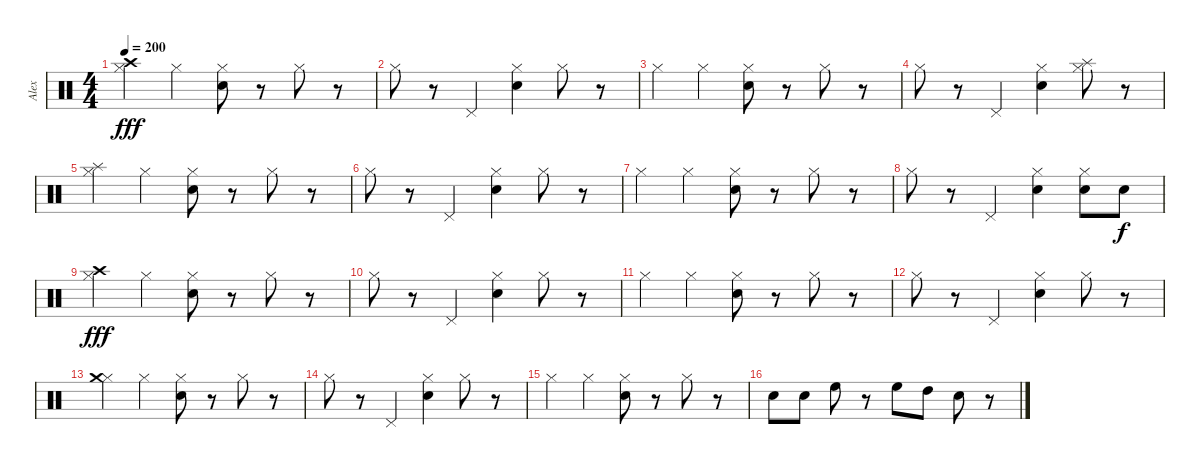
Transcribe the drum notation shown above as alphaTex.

\track ("Alex" "Alex") {instrument percussion}
\staff {score}
\articulation defaults
\ts (4 4)
\tempo 200
\clef neutral
\ks c
("Crash high (hit)" "Hi-Hat (closed)").4{dy fff} "Hi-Hat (closed)".4 ("Electric Snare (hit)" "Hi-Hat (closed)").8 r.8 "Hi-Hat (closed)".8 r.8 |
"Hi-Hat (closed)".8 r.8 "Pedal Hi-Hat (hit)".4 ("Electric Snare (hit)" "Hi-Hat (closed)").4 "Hi-Hat (closed)".8 r.8 |
"Hi-Hat (closed)".4 "Hi-Hat (closed)".4 ("Electric Snare (hit)" "Hi-Hat (closed)").8 r.8 "Hi-Hat (closed)".8 r.8 |
"Hi-Hat (closed)".8 r.8 "Pedal Hi-Hat (hit)".4 ("Electric Snare (hit)" "Hi-Hat (closed)").4 ("Hi-Hat (closed)" "Splash (hit)").8 r.8 |
("Hi-Hat (closed)" "Splash (hit)").4 "Hi-Hat (closed)".4 ("Electric Snare (hit)" "Hi-Hat (closed)").8 r.8 "Hi-Hat (closed)".8 r.8 |
"Hi-Hat (closed)".8 r.8 "Pedal Hi-Hat (hit)".4 ("Electric Snare (hit)" "Hi-Hat (closed)").4 "Hi-Hat (closed)".8 r.8 |
"Hi-Hat (closed)".4 "Hi-Hat (closed)".4 ("Electric Snare (hit)" "Hi-Hat (closed)").8 r.8 "Hi-Hat (closed)".8 r.8 |
"Hi-Hat (closed)".8 r.8 "Pedal Hi-Hat (hit)".4 ("Electric Snare (hit)" "Hi-Hat (closed)").4 ("Electric Snare (hit)" "Hi-Hat (closed)").8 "Electric Snare (hit)".8{dy f} |
("Hi-Hat (closed)" "Crash high (hit)").4{dy fff} "Hi-Hat (closed)".4 ("Electric Snare (hit)" "Hi-Hat (closed)").8 r.8 "Hi-Hat (closed)".8 r.8 |
"Hi-Hat (closed)".8 r.8 "Pedal Hi-Hat (hit)".4 ("Electric Snare (hit)" "Hi-Hat (closed)").4 "Hi-Hat (closed)".8 r.8 |
"Hi-Hat (closed)".4 "Hi-Hat (closed)".4 ("Electric Snare (hit)" "Hi-Hat (closed)").8 r.8 "Hi-Hat (closed)".8 r.8 |
"Hi-Hat (closed)".8 r.8 "Pedal Hi-Hat (hit)".4 ("Electric Snare (hit)" "Hi-Hat (closed)").4 "Hi-Hat (closed)".8 r.8 |
("Hi-Hat (closed)" "Crash medium (hit)").4 "Hi-Hat (closed)".4 ("Electric Snare (hit)" "Hi-Hat (closed)").8 r.8 "Hi-Hat (closed)".8 r.8 |
"Hi-Hat (closed)".8 r.8 "Pedal Hi-Hat (hit)".4 ("Electric Snare (hit)" "Hi-Hat (closed)").4 "Hi-Hat (closed)".8 r.8 |
"Hi-Hat (closed)".4 "Hi-Hat (closed)".4 ("Electric Snare (hit)" "Hi-Hat (closed)").8 r.8 "Hi-Hat (closed)".8 r.8 |
"Electric Snare (hit)".8 "Electric Snare (hit)".8 "High Floor Tom (hit)".8 r.8 "High Floor Tom (hit)".8 "High Tom (hit)".8 "Snare (hit) 2".8 r.8
